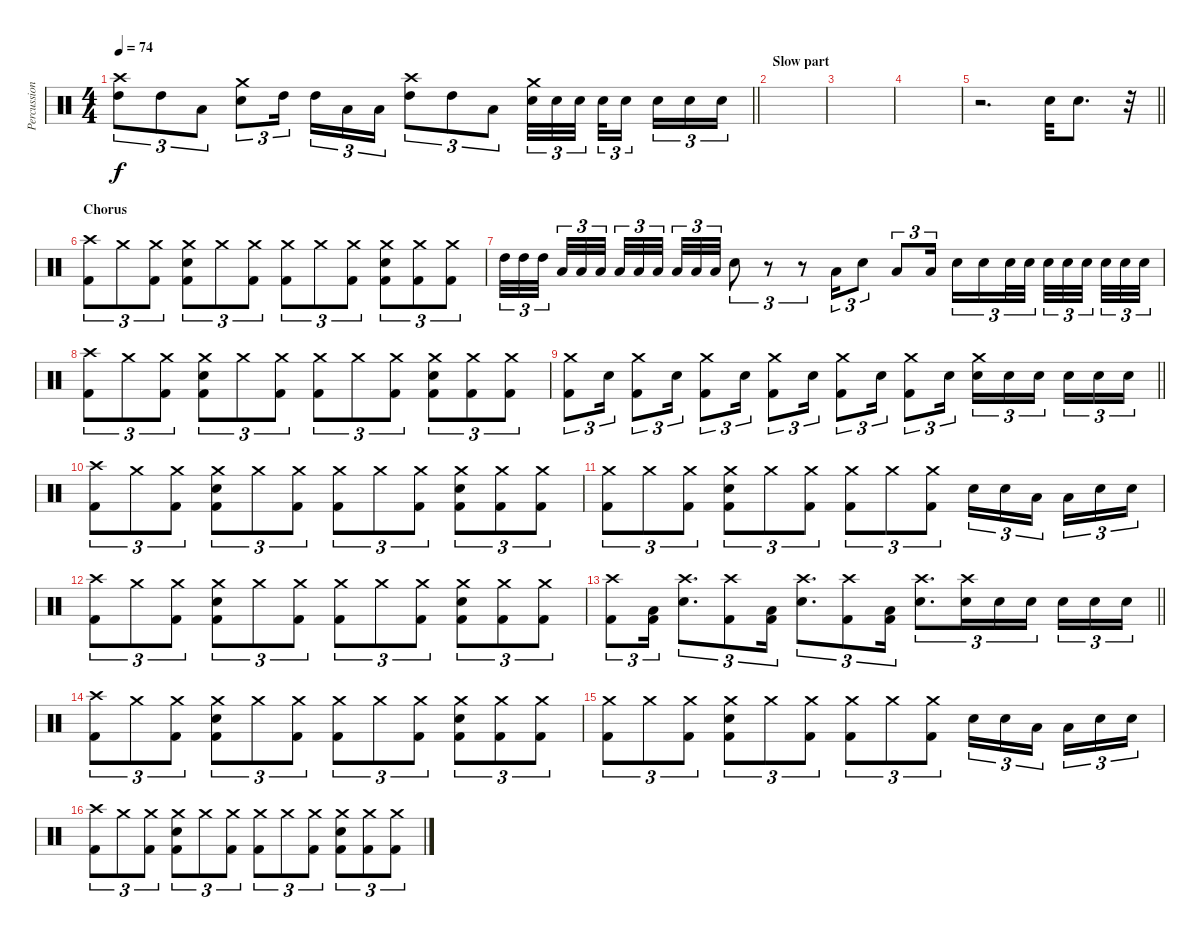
\track ("Percussioni" "Percussion") {instrument percussion}
\staff {score}
\articulation defaults
\ts (4 4)
\tempo 74
\clef neutral
\barLineRight lightlight
\ks c
("Crash high (hit)" "High Tom (hit)").8{tu (3 2) dy f} "High Tom (hit)".8{tu (3 2)} "Low Tom (hit)".8{tu (3 2)} ("Crash medium (hit)" "Snare (hit) 2").8{tu (3 2)} "High Tom (hit)".16{tu (3 2) beam splitsecondary} "High Tom (hit)".16{tu (3 2)} "Low Tom (hit)".16{tu (3 2)} "Low Floor Tom (hit)".16{tu (3 2)} ("Crash high (hit)" "High Tom (hit)").8{tu (3 2)} "High Tom (hit)".8{tu (3 2)} "Low Tom (hit)".8{tu (3 2)} ("Crash medium (hit)" "Snare (hit) 2").32{tu (3 2)} "Snare (hit) 2".32{tu (3 2)} "Snare (hit) 2".32{tu (3 2) beam splitsecondary} "Snare (hit) 2".32{tu (3 2)} "Snare (hit) 2".16{tu (3 2) beam splitsecondary} "Snare (hit) 2".16{tu (3 2)} "Snare (hit) 2".16{tu (3 2)} "Snare (hit) 2".16{tu (3 2)} |
\section ("" "Slow part")
|
|
|
\barLineRight lightlight
r.2{d} "Snare (hit) 2".32 "Snare (hit) 2".8{d} r.32 |
\section ("" "Chorus")
("Crash high (hit)" "Kick (hit) 2").8{tu (3 2)} "Crash medium (hit)".8{tu (3 2)} ("Crash medium (hit)" "Kick (hit) 2").8{tu (3 2)} ("Crash medium (hit)" "Snare (hit) 2" "Kick (hit) 2").8{tu (3 2)} "Crash medium (hit)".8{tu (3 2)} ("Crash medium (hit)" "Kick (hit) 2").8{tu (3 2)} ("Crash medium (hit)" "Kick (hit) 2").8{tu (3 2)} "Crash medium (hit)".8{tu (3 2)} ("Crash medium (hit)" "Kick (hit) 2").8{tu (3 2)} ("Crash medium (hit)" "Snare (hit) 2" "Kick (hit) 2").8{tu (3 2)} ("Crash medium (hit)" "Kick (hit) 2").8{tu (3 2)} ("Crash medium (hit)" "Kick (hit) 2").8{tu (3 2)} |
"High Tom (hit)".32{tu (3 2)} "High Tom (hit)".32{tu (3 2)} "High Tom (hit)".32{tu (3 2) beam splitsecondary} "Low Tom (hit)".32{tu (3 2)} "Low Tom (hit)".32{tu (3 2)} "Low Tom (hit)".32{tu (3 2) beam splitsecondary} "Low Floor Tom (hit)".32{tu (3 2)} "Low Floor Tom (hit)".32{tu (3 2)} "Low Floor Tom (hit)".32{tu (3 2) beam splitsecondary} "Low Floor Tom (hit)".32{tu (3 2)} "Low Floor Tom (hit)".32{tu (3 2)} "Low Floor Tom (hit)".32{tu (3 2)} "Snare (hit) 2".8{tu (3 2)} r.8{tu (3 2)} r.8{tu (3 2)} "Low Tom (hit)".16{tu (3 2)} "Snare (hit) 2".8{tu (3 2)} "Low Tom (hit)".8{tu (3 2)} "Low Tom (hit)".16{tu (3 2)} "Snare (hit) 2".16{tu (3 2)} "Snare (hit) 2".16{tu (3 2)} "Snare (hit) 2".32{tu (3 2)} "Snare (hit) 2".32{tu (3 2) beam splitsecondary} "Snare (hit) 2".32{tu (3 2)} "Snare (hit) 2".32{tu (3 2)} "Snare (hit) 2".32{tu (3 2) beam splitsecondary} "Snare (hit) 2".32{tu (3 2)} "Snare (hit) 2".32{tu (3 2)} "Snare (hit) 2".32{tu (3 2)} |
("Crash high (hit)" "Kick (hit) 2").8{tu (3 2)} "Crash medium (hit)".8{tu (3 2)} ("Crash medium (hit)" "Kick (hit) 2").8{tu (3 2)} ("Crash medium (hit)" "Snare (hit) 2" "Kick (hit) 2").8{tu (3 2)} "Crash medium (hit)".8{tu (3 2)} ("Crash medium (hit)" "Kick (hit) 2").8{tu (3 2)} ("Crash medium (hit)" "Kick (hit) 2").8{tu (3 2)} "Crash medium (hit)".8{tu (3 2)} ("Crash medium (hit)" "Kick (hit) 2").8{tu (3 2)} ("Crash medium (hit)" "Snare (hit) 2" "Kick (hit) 2").8{tu (3 2)} ("Crash medium (hit)" "Kick (hit) 2").8{tu (3 2)} ("Crash medium (hit)" "Kick (hit) 2").8{tu (3 2)} |
\barLineRight lightlight
("Crash medium (hit)" "Kick (hit) 2").8{tu (3 2)} "Snare (hit) 2".16{tu (3 2)} ("Crash medium (hit)" "Kick (hit) 2").8{tu (3 2)} "Snare (hit) 2".16{tu (3 2)} ("Crash medium (hit)" "Kick (hit) 2").8{tu (3 2)} "Snare (hit) 2".16{tu (3 2)} ("Crash medium (hit)" "Kick (hit) 2").8{tu (3 2)} "Snare (hit) 2".16{tu (3 2)} ("Crash medium (hit)" "Kick (hit) 2").8{tu (3 2)} "Snare (hit) 2".16{tu (3 2)} ("Crash medium (hit)" "Kick (hit) 2").8{tu (3 2)} "Snare (hit) 2".16{tu (3 2)} ("Crash medium (hit)" "Snare (hit) 2").16{tu (3 2)} "Snare (hit) 2".16{tu (3 2)} "Snare (hit) 2".16{tu (3 2) beam splitsecondary} "Snare (hit) 2".16{tu (3 2)} "Snare (hit) 2".16{tu (3 2)} "Snare (hit) 2".16{tu (3 2)} |
("Crash high (hit)" "Kick (hit) 2").8{tu (3 2)} "Crash medium (hit)".8{tu (3 2)} ("Crash medium (hit)" "Kick (hit) 2").8{tu (3 2)} ("Crash medium (hit)" "Snare (hit) 2" "Kick (hit) 2").8{tu (3 2)} "Crash medium (hit)".8{tu (3 2)} ("Crash medium (hit)" "Kick (hit) 2").8{tu (3 2)} ("Crash medium (hit)" "Kick (hit) 2").8{tu (3 2)} "Crash medium (hit)".8{tu (3 2)} ("Crash medium (hit)" "Kick (hit) 2").8{tu (3 2)} ("Crash medium (hit)" "Snare (hit) 2" "Kick (hit) 2").8{tu (3 2)} ("Crash medium (hit)" "Kick (hit) 2").8{tu (3 2)} ("Crash medium (hit)" "Kick (hit) 2").8{tu (3 2)} |
("Crash medium (hit)" "Kick (hit) 2").8{tu (3 2)} "Crash medium (hit)".8{tu (3 2)} ("Crash medium (hit)" "Kick (hit) 2").8{tu (3 2)} ("Crash medium (hit)" "Snare (hit) 2" "Kick (hit) 2").8{tu (3 2)} "Crash medium (hit)".8{tu (3 2)} ("Crash medium (hit)" "Kick (hit) 2").8{tu (3 2)} ("Crash medium (hit)" "Kick (hit) 2").8{tu (3 2)} "Crash medium (hit)".8{tu (3 2)} ("Crash medium (hit)" "Kick (hit) 2").8{tu (3 2)} "Snare (hit) 2".16{tu (3 2)} "Snare (hit) 2".16{tu (3 2)} "Low Tom (hit)".16{tu (3 2) beam splitsecondary} "Low Tom (hit)".16{tu (3 2)} "Snare (hit) 2".16{tu (3 2)} "Snare (hit) 2".16{tu (3 2)} |
("Crash high (hit)" "Kick (hit) 2").8{tu (3 2)} "Crash medium (hit)".8{tu (3 2)} ("Crash medium (hit)" "Kick (hit) 2").8{tu (3 2)} ("Crash medium (hit)" "Snare (hit) 2" "Kick (hit) 2").8{tu (3 2)} "Crash medium (hit)".8{tu (3 2)} ("Crash medium (hit)" "Kick (hit) 2").8{tu (3 2)} ("Crash medium (hit)" "Kick (hit) 2").8{tu (3 2)} "Crash medium (hit)".8{tu (3 2)} ("Crash medium (hit)" "Kick (hit) 2").8{tu (3 2)} ("Crash medium (hit)" "Snare (hit) 2" "Kick (hit) 2").8{tu (3 2)} ("Crash medium (hit)" "Kick (hit) 2").8{tu (3 2)} ("Crash medium (hit)" "Kick (hit) 2").8{tu (3 2)} |
\barLineRight lightlight
("Crash high (hit)" "Kick (hit) 2").8{tu (3 2)} ("Low Floor Tom (hit)" "Kick (hit) 2").16{tu (3 2)} ("Crash high (hit)" "Snare (hit) 2").8{d tu (3 2)} ("Crash high (hit)" "Kick (hit) 2").8{tu (3 2)} ("Low Floor Tom (hit)" "Kick (hit) 2").16{tu (3 2)} ("Crash high (hit)" "Snare (hit) 2").8{d tu (3 2)} ("Crash high (hit)" "Kick (hit) 2").8{tu (3 2)} ("Low Floor Tom (hit)" "Kick (hit) 2").16{tu (3 2)} ("Crash high (hit)" "Snare (hit) 2").8{d tu (3 2)} ("Crash high (hit)" "Snare (hit) 2").16{tu (3 2)} "Snare (hit) 2".16{tu (3 2)} "Snare (hit) 2".16{tu (3 2) beam splitsecondary} "Snare (hit) 2".16{tu (3 2)} "Snare (hit) 2".16{tu (3 2)} "Snare (hit) 2".16{tu (3 2)} |
("Crash high (hit)" "Kick (hit) 2").8{tu (3 2)} "Crash medium (hit)".8{tu (3 2)} ("Crash medium (hit)" "Kick (hit) 2").8{tu (3 2)} ("Crash medium (hit)" "Snare (hit) 2" "Kick (hit) 2").8{tu (3 2)} "Crash medium (hit)".8{tu (3 2)} ("Crash medium (hit)" "Kick (hit) 2").8{tu (3 2)} ("Crash medium (hit)" "Kick (hit) 2").8{tu (3 2)} "Crash medium (hit)".8{tu (3 2)} ("Crash medium (hit)" "Kick (hit) 2").8{tu (3 2)} ("Crash medium (hit)" "Snare (hit) 2" "Kick (hit) 2").8{tu (3 2)} ("Crash medium (hit)" "Kick (hit) 2").8{tu (3 2)} ("Crash medium (hit)" "Kick (hit) 2").8{tu (3 2)} |
("Crash medium (hit)" "Kick (hit) 2").8{tu (3 2)} "Crash medium (hit)".8{tu (3 2)} ("Crash medium (hit)" "Kick (hit) 2").8{tu (3 2)} ("Crash medium (hit)" "Snare (hit) 2" "Kick (hit) 2").8{tu (3 2)} "Crash medium (hit)".8{tu (3 2)} ("Crash medium (hit)" "Kick (hit) 2").8{tu (3 2)} ("Crash medium (hit)" "Kick (hit) 2").8{tu (3 2)} "Crash medium (hit)".8{tu (3 2)} ("Crash medium (hit)" "Kick (hit) 2").8{tu (3 2)} "Snare (hit) 2".16{tu (3 2)} "Snare (hit) 2".16{tu (3 2)} "Low Tom (hit)".16{tu (3 2) beam splitsecondary} "Low Tom (hit)".16{tu (3 2)} "Snare (hit) 2".16{tu (3 2)} "Snare (hit) 2".16{tu (3 2)} |
("Crash high (hit)" "Kick (hit) 2").8{tu (3 2)} "Crash medium (hit)".8{tu (3 2)} ("Crash medium (hit)" "Kick (hit) 2").8{tu (3 2)} ("Crash medium (hit)" "Snare (hit) 2" "Kick (hit) 2").8{tu (3 2)} "Crash medium (hit)".8{tu (3 2)} ("Crash medium (hit)" "Kick (hit) 2").8{tu (3 2)} ("Crash medium (hit)" "Kick (hit) 2").8{tu (3 2)} "Crash medium (hit)".8{tu (3 2)} ("Crash medium (hit)" "Kick (hit) 2").8{tu (3 2)} ("Crash medium (hit)" "Snare (hit) 2" "Kick (hit) 2").8{tu (3 2)} ("Crash medium (hit)" "Kick (hit) 2").8{tu (3 2)} ("Crash medium (hit)" "Kick (hit) 2").8{tu (3 2)}
